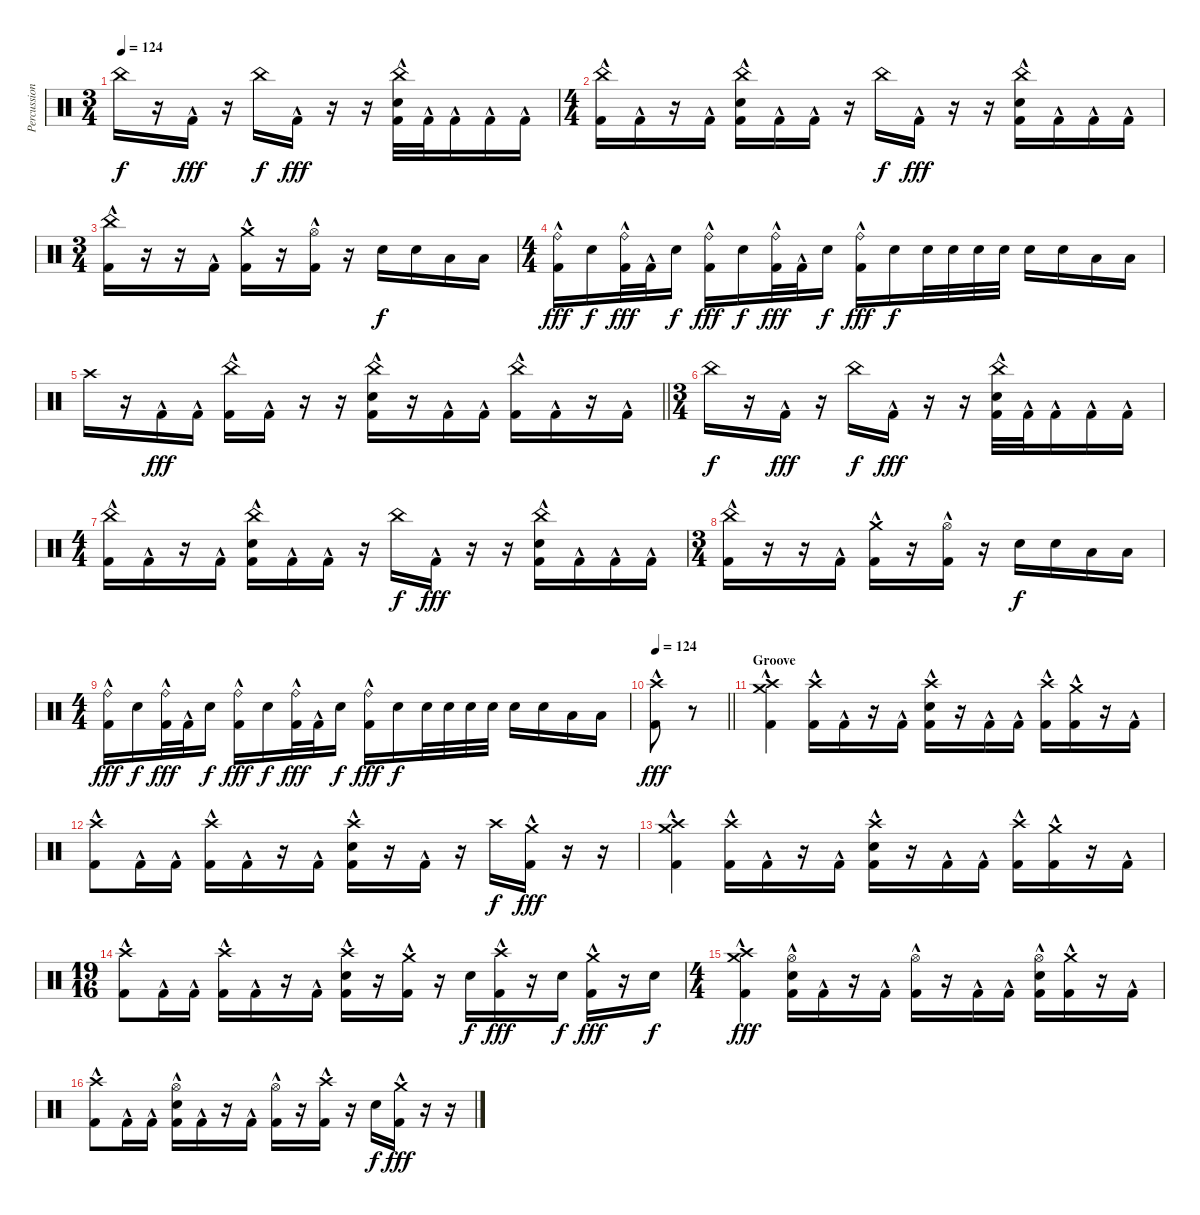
\track ("Percussion" "Percussion") {instrument percussion}
\staff {score}
\articulation defaults
\ts (3 4)
\tempo 124
\clef neutral
\ks c "China (hit)".16{dy f}
r.16 "Kick (hit) 2"{hac}.16{dy fff} r.16 "China (hit)".16{dy f} "Kick (hit) 2"{hac}.16{dy fff} r.16 r.16 ("Electric Snare (hit)" "China (hit)" "Kick (hit) 2"{hac}).32 "Kick (hit) 2"{hac}.32 "Kick (hit) 2"{hac}.16 "Kick (hit) 2"{hac}.16 "Kick (hit) 2"{hac}.16 |
\ts (4 4)
("China (hit)" "Kick (hit) 2"{hac}).16 "Kick (hit) 2"{hac}.16 r.16 "Kick (hit) 2"{hac}.16 ("China (hit)" "Electric Snare (hit)" "Kick (hit) 2"{hac}).16 "Kick (hit) 2"{hac}.16 "Kick (hit) 2"{hac}.16 r.16 "China (hit)".16{dy f} "Kick (hit) 2"{hac}.16{dy fff} r.16 r.16 ("China (hit)" "Electric Snare (hit)" "Kick (hit) 2"{hac}).16 "Kick (hit) 2"{hac}.16 "Kick (hit) 2"{hac}.16 "Kick (hit) 2"{hac}.16 |
\ts (3 4)
("China (hit)" "Kick (hit) 2"{hac}).16 r.16 r.16 "Kick (hit) 2"{hac}.16 ("Crash medium (hit)" "Kick (hit) 2"{hac}).16 r.16 ("Hi-Hat (open)" "Kick (hit) 2"{hac}).16 r.16 "Electric Snare (hit)".16{dy f} "Electric Snare (hit)".16 "Low Tom (hit)".16 "Low Tom (hit)".16 |
\ts (4 4)
("Ride (bell)" "Kick (hit) 2"{hac}).16{dy fff} "Electric Snare (hit)".16{dy f} ("Ride (bell)" "Kick (hit) 2"{hac}).32{dy fff} "Kick (hit) 2"{hac}.32 "Electric Snare (hit)".16{dy f} ("Ride (bell)" "Kick (hit) 2"{hac}).16{dy fff} "Electric Snare (hit)".16{dy f} ("Ride (bell)" "Kick (hit) 2"{hac}).32{dy fff} "Kick (hit) 2"{hac}.32 "Electric Snare (hit)".16{dy f} ("Ride (bell)" "Kick (hit) 2"{hac}).16{dy fff} "Electric Snare (hit)".16{dy f} "Electric Snare (hit)".32 "Electric Snare (hit)".32 "Electric Snare (hit)".32 "Electric Snare (hit)".32 "Electric Snare (hit)".16 "Electric Snare (hit)".16 "Low Tom (hit)".16 "Low Tom (hit)".16 |
\barLineRight lightlight "Crash high (hit)".16
r.16 "Kick (hit) 2"{hac}.16{dy fff} "Kick (hit) 2"{hac}.16 ("China (hit)" "Kick (hit) 2"{hac}).16 "Kick (hit) 2"{hac}.16 r.16 r.16 ("Electric Snare (hit)" "China (hit)" "Kick (hit) 2"{hac}).16 r.16 "Kick (hit) 2"{hac}.16 "Kick (hit) 2"{hac}.16 ("China (hit)" "Kick (hit) 2"{hac}).16 "Kick (hit) 2"{hac}.16 r.16 "Kick (hit) 2"{hac}.16 |
\ts (3 4)
"China (hit)".16{dy f} r.16 "Kick (hit) 2"{hac}.16{dy fff} r.16 "China (hit)".16{dy f} "Kick (hit) 2"{hac}.16{dy fff} r.16 r.16 ("Electric Snare (hit)" "China (hit)" "Kick (hit) 2"{hac}).32 "Kick (hit) 2"{hac}.32 "Kick (hit) 2"{hac}.16 "Kick (hit) 2"{hac}.16 "Kick (hit) 2"{hac}.16 |
\ts (4 4)
("China (hit)" "Kick (hit) 2"{hac}).16 "Kick (hit) 2"{hac}.16 r.16 "Kick (hit) 2"{hac}.16 ("China (hit)" "Electric Snare (hit)" "Kick (hit) 2"{hac}).16 "Kick (hit) 2"{hac}.16 "Kick (hit) 2"{hac}.16 r.16 "China (hit)".16{dy f} "Kick (hit) 2"{hac}.16{dy fff} r.16 r.16 ("China (hit)" "Electric Snare (hit)" "Kick (hit) 2"{hac}).16 "Kick (hit) 2"{hac}.16 "Kick (hit) 2"{hac}.16 "Kick (hit) 2"{hac}.16 |
\ts (3 4)
("China (hit)" "Kick (hit) 2"{hac}).16 r.16 r.16 "Kick (hit) 2"{hac}.16 ("Crash medium (hit)" "Kick (hit) 2"{hac}).16 r.16 ("Hi-Hat (open)" "Kick (hit) 2"{hac}).16 r.16 "Electric Snare (hit)".16{dy f} "Electric Snare (hit)".16 "Low Tom (hit)".16 "Low Tom (hit)".16 |
\ts (4 4)
("Ride (bell)" "Kick (hit) 2"{hac}).16{dy fff} "Electric Snare (hit)".16{dy f} ("Ride (bell)" "Kick (hit) 2"{hac}).32{dy fff} "Kick (hit) 2"{hac}.32 "Electric Snare (hit)".16{dy f} ("Ride (bell)" "Kick (hit) 2"{hac}).16{dy fff} "Electric Snare (hit)".16{dy f} ("Ride (bell)" "Kick (hit) 2"{hac}).32{dy fff} "Kick (hit) 2"{hac}.32 "Electric Snare (hit)".16{dy f} ("Ride (bell)" "Kick (hit) 2"{hac}).16{dy fff} "Electric Snare (hit)".16{dy f} "Electric Snare (hit)".32 "Electric Snare (hit)".32 "Electric Snare (hit)".32 "Electric Snare (hit)".32 "Electric Snare (hit)".16 "Electric Snare (hit)".16 "Low Tom (hit)".16 "Low Tom (hit)".16 |
\tempo 124
\barLineRight lightlight
("Crash high (hit)" "Kick (hit) 2"{hac}).8{dy fff} r.8{volume 0} |
\section ("" "Groove")
("Crash medium (hit)" "Crash high (hit)" "Kick (hit) 2"{hac}).4{volume 13} ("Crash high (hit)" "Kick (hit) 2"{hac}).16 "Kick (hit) 2"{hac}.16 r.16 "Kick (hit) 2"{hac}.16 ("Electric Snare (hit)" "Crash high (hit)" "Kick (hit) 2"{hac}).16 r.16 "Kick (hit) 2"{hac}.16 "Kick (hit) 2"{hac}.16 ("Crash high (hit)" "Kick (hit) 2"{hac}).16 ("Crash medium (hit)" "Kick (hit) 2"{hac}).16 r.16 "Kick (hit) 2"{hac}.16 |
("Crash high (hit)" "Kick (hit) 2"{hac}).8 "Kick (hit) 2"{hac}.16 "Kick (hit) 2"{hac}.16 ("Crash high (hit)" "Kick (hit) 2"{hac}).16 "Kick (hit) 2"{hac}.16 r.16 "Kick (hit) 2"{hac}.16 ("Electric Snare (hit)" "Crash high (hit)" "Kick (hit) 2"{hac}).16 r.16 "Kick (hit) 2"{hac}.16 r.16 "Crash high (hit)".16{dy f} ("Crash medium (hit)" "Kick (hit) 2"{hac}).16{dy fff} r.16 r.16 |
("Crash medium (hit)" "Crash high (hit)" "Kick (hit) 2"{hac}).4 ("Crash high (hit)" "Kick (hit) 2"{hac}).16 "Kick (hit) 2"{hac}.16 r.16 "Kick (hit) 2"{hac}.16 ("Electric Snare (hit)" "Crash high (hit)" "Kick (hit) 2"{hac}).16 r.16 "Kick (hit) 2"{hac}.16 "Kick (hit) 2"{hac}.16 ("Crash high (hit)" "Kick (hit) 2"{hac}).16 ("Crash medium (hit)" "Kick (hit) 2"{hac}).16 r.16 "Kick (hit) 2"{hac}.16 |
\ts (19 16)
("Crash high (hit)" "Kick (hit) 2"{hac}).8 "Kick (hit) 2"{hac}.16 "Kick (hit) 2"{hac}.16 ("Crash high (hit)" "Kick (hit) 2"{hac}).16 "Kick (hit) 2"{hac}.16 r.16 "Kick (hit) 2"{hac}.16 ("Electric Snare (hit)" "Crash high (hit)" "Kick (hit) 2"{hac}).16 r.16 ("Crash medium (hit)"{hac} "Kick (hit) 2"{hac}).16 r.16 "Electric Snare (hit)".16{dy f} ("Crash high (hit)" "Kick (hit) 2"{hac}).16{dy fff} r.16 "Electric Snare (hit)".16{dy f} ("Crash medium (hit)" "Kick (hit) 2"{hac}).16{dy fff} r.16 "Electric Snare (hit)".16{dy f} |
\ts (4 4)
("Crash high (hit)" "Crash medium (hit)" "Kick (hit) 2"{hac}).4{dy fff} ("Electric Snare (hit)" "Hi-Hat (open)" "Kick (hit) 2"{hac}).16 "Kick (hit) 2"{hac}.16 r.16 "Kick (hit) 2"{hac}.16 ("Hi-Hat (open)" "Kick (hit) 2"{hac}).16 r.16 "Kick (hit) 2"{hac}.16 "Kick (hit) 2"{hac}.16 ("Electric Snare (hit)" "Hi-Hat (open)" "Kick (hit) 2"{hac}).16 ("Crash medium (hit)" "Kick (hit) 2"{hac}).16 r.16 "Kick (hit) 2"{hac}.16 |
("Crash high (hit)" "Kick (hit) 2"{hac}).8 "Kick (hit) 2"{hac}.16 "Kick (hit) 2"{hac}.16 ("Electric Snare (hit)" "Hi-Hat (open)" "Kick (hit) 2"{hac}).16 "Kick (hit) 2"{hac}.16 r.16 "Kick (hit) 2"{hac}.16 ("Hi-Hat (open)" "Kick (hit) 2"{hac}).16 r.16 ("Crash high (hit)" "Kick (hit) 2"{hac}).16 r.16 "Electric Snare (hit)".16{dy f} ("Crash medium (hit)" "Kick (hit) 2"{hac}).16{dy fff} r.16 r.16
